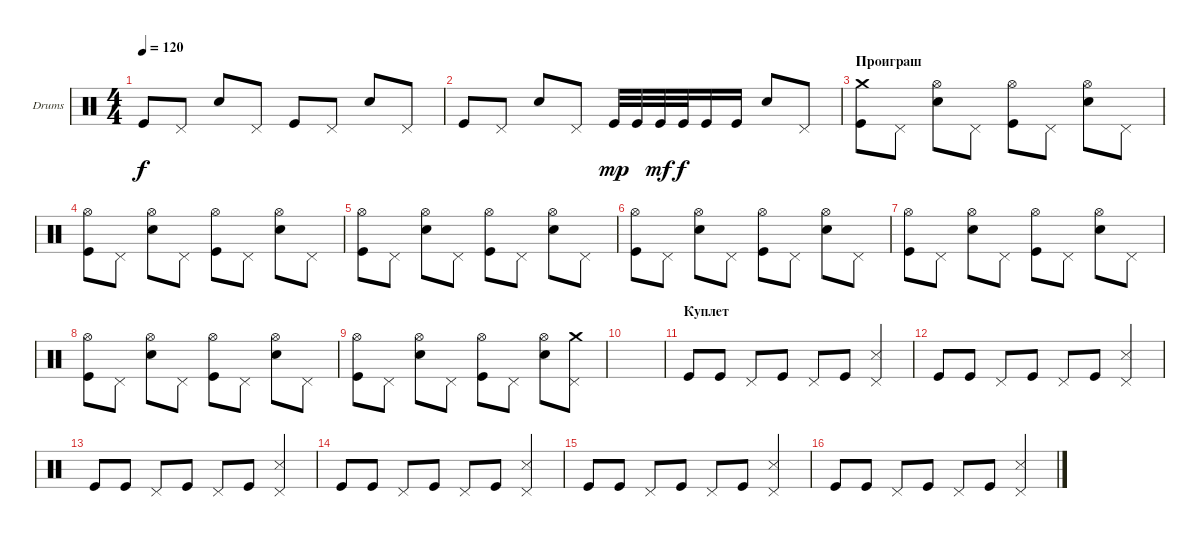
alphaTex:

\defaultSystemsLayout 4
\bracketExtendMode groupsimilarinstruments
\firstSystemTrackNameOrientation horizontal
\otherSystemsTrackNameOrientation horizontal
\track ("Е. Кулаков" "Drums") {instrument percussion}
\staff {score}
\articulation defaults
\ts (4 4)
\tempo 120
\clef neutral
\ks c "Kick (hit)".8{dy f} "Pedal Hi-Hat (hit)".8 "Snare (hit) 2".8 "Pedal Hi-Hat (hit)".8 "Kick (hit)".8 "Pedal Hi-Hat (hit)".8 "Snare (hit) 2".8 "Pedal Hi-Hat (hit)".8
|
"Kick (hit)".8 "Pedal Hi-Hat (hit)".8 "Snare (hit) 2".8 "Pedal Hi-Hat (hit)".8 "Kick (hit)".32{dy mp} "Kick (hit)".32 "Kick (hit)".32{dy mf} "Kick (hit)".32{dy f} "Kick (hit)".16 "Kick (hit)".16 "Snare (hit) 2".8 "Pedal Hi-Hat (hit)".8 |
\section ("" "Проиграш")
("Kick (hit)" "Crash medium (hit)").8 "Pedal Hi-Hat (hit)".8 ("Snare (hit) 2" "Hi-Hat (open)").8 "Pedal Hi-Hat (hit)".8 ("Kick (hit)" "Hi-Hat (open)").8 "Pedal Hi-Hat (hit)".8 ("Snare (hit) 2" "Hi-Hat (open)").8 "Pedal Hi-Hat (hit)".8 |
("Kick (hit)" "Hi-Hat (open)").8 "Pedal Hi-Hat (hit)".8 ("Snare (hit) 2" "Hi-Hat (open)").8 "Pedal Hi-Hat (hit)".8 ("Kick (hit)" "Hi-Hat (open)").8 "Pedal Hi-Hat (hit)".8 ("Snare (hit) 2" "Hi-Hat (open)").8 "Pedal Hi-Hat (hit)".8 |
("Kick (hit)" "Hi-Hat (open)").8 "Pedal Hi-Hat (hit)".8 ("Snare (hit) 2" "Hi-Hat (open)").8 "Pedal Hi-Hat (hit)".8 ("Kick (hit)" "Hi-Hat (open)").8 "Pedal Hi-Hat (hit)".8 ("Snare (hit) 2" "Hi-Hat (open)").8 "Pedal Hi-Hat (hit)".8 |
("Kick (hit)" "Hi-Hat (open)").8 "Pedal Hi-Hat (hit)".8 ("Snare (hit) 2" "Hi-Hat (open)").8 "Pedal Hi-Hat (hit)".8 ("Kick (hit)" "Hi-Hat (open)").8 "Pedal Hi-Hat (hit)".8 ("Snare (hit) 2" "Hi-Hat (open)").8 "Pedal Hi-Hat (hit)".8 |
("Kick (hit)" "Hi-Hat (open)").8 "Pedal Hi-Hat (hit)".8 ("Snare (hit) 2" "Hi-Hat (open)").8 "Pedal Hi-Hat (hit)".8 ("Kick (hit)" "Hi-Hat (open)").8 "Pedal Hi-Hat (hit)".8 ("Snare (hit) 2" "Hi-Hat (open)").8 "Pedal Hi-Hat (hit)".8 |
("Kick (hit)" "Hi-Hat (open)").8 "Pedal Hi-Hat (hit)".8 ("Snare (hit) 2" "Hi-Hat (open)").8 "Pedal Hi-Hat (hit)".8 ("Kick (hit)" "Hi-Hat (open)").8 "Pedal Hi-Hat (hit)".8 ("Snare (hit) 2" "Hi-Hat (open)").8 "Pedal Hi-Hat (hit)".8 |
("Kick (hit)" "Hi-Hat (open)").8 "Pedal Hi-Hat (hit)".8 ("Snare (hit) 2" "Hi-Hat (open)").8 "Pedal Hi-Hat (hit)".8 ("Kick (hit)" "Hi-Hat (open)").8 "Pedal Hi-Hat (hit)".8 ("Snare (hit) 2" "Hi-Hat (open)").8 ("Pedal Hi-Hat (hit)" "Crash medium (hit)").8 |
|
\section ("" "Куплет")
"Kick (hit)".8 "Kick (hit)".8 "Pedal Hi-Hat (hit)".8 "Kick (hit)".8 "Pedal Hi-Hat (hit)".8 "Kick (hit)".8 ("Pedal Hi-Hat (hit)" "Snare (side stick) 3").4 |
"Kick (hit)".8 "Kick (hit)".8 "Pedal Hi-Hat (hit)".8 "Kick (hit)".8 "Pedal Hi-Hat (hit)".8 "Kick (hit)".8 ("Pedal Hi-Hat (hit)" "Snare (side stick) 3").4 |
"Kick (hit)".8 "Kick (hit)".8 "Pedal Hi-Hat (hit)".8 "Kick (hit)".8 "Pedal Hi-Hat (hit)".8 "Kick (hit)".8 ("Pedal Hi-Hat (hit)" "Snare (side stick) 3").4 |
"Kick (hit)".8 "Kick (hit)".8 "Pedal Hi-Hat (hit)".8 "Kick (hit)".8 "Pedal Hi-Hat (hit)".8 "Kick (hit)".8 ("Pedal Hi-Hat (hit)" "Snare (side stick) 3").4 |
"Kick (hit)".8 "Kick (hit)".8 "Pedal Hi-Hat (hit)".8 "Kick (hit)".8 "Pedal Hi-Hat (hit)".8 "Kick (hit)".8 ("Pedal Hi-Hat (hit)" "Snare (side stick) 3").4 |
"Kick (hit)".8 "Kick (hit)".8 "Pedal Hi-Hat (hit)".8 "Kick (hit)".8 "Pedal Hi-Hat (hit)".8 "Kick (hit)".8 ("Pedal Hi-Hat (hit)" "Snare (side stick) 3").4
